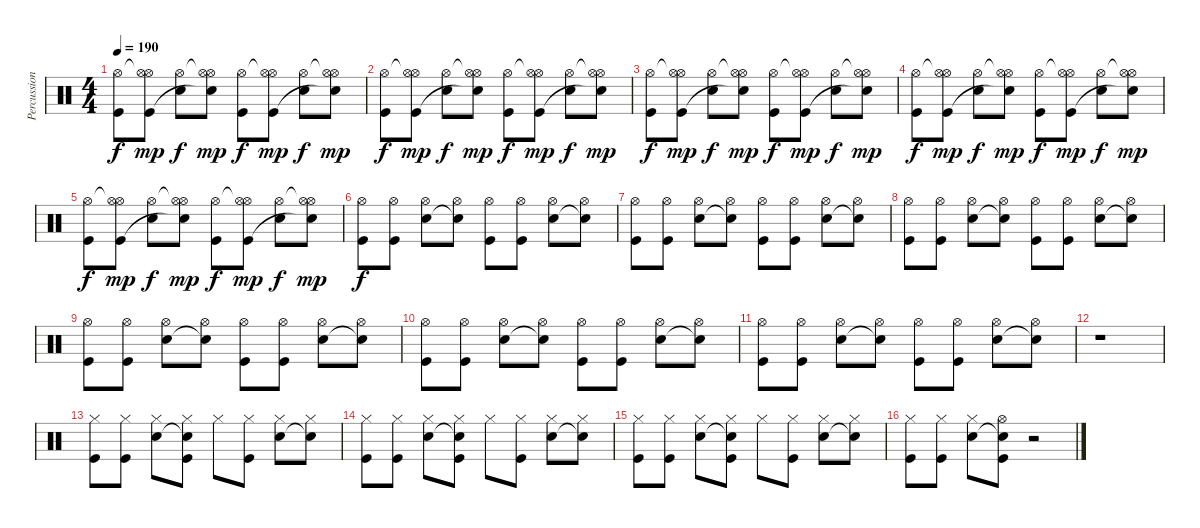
\track ("Percussions" "Percussion") {instrument percussion}
\staff {score}
\articulation defaults
\ts (4 4)
\tempo 190
\clef neutral
\ks c
("Hi-Hat (open)" "Kick (hit)").8{dy f} ("Hi-Hat (open)"{t} "Hi-Hat (open)" "Kick (hit)").8{dy mp} ("Hi-Hat (open)" "Electric Snare (hit)").8{dy f} ("Hi-Hat (open)"{t} "Hi-Hat (open)" "Snare (hit)"{t}).8{dy mp} ("Hi-Hat (open)" "Kick (hit)").8{dy f} ("Hi-Hat (open)"{t} "Hi-Hat (open)" "Kick (hit)").8{dy mp} ("Hi-Hat (open)" "Electric Snare (hit)").8{dy f} ("Hi-Hat (open)"{t} "Hi-Hat (open)" "Snare (hit)"{t}).8{dy mp} |
("Hi-Hat (open)" "Kick (hit)").8{dy f} ("Hi-Hat (open)"{t} "Hi-Hat (open)" "Kick (hit)").8{dy mp} ("Hi-Hat (open)" "Electric Snare (hit)").8{dy f} ("Hi-Hat (open)"{t} "Hi-Hat (open)" "Snare (hit)"{t}).8{dy mp} ("Hi-Hat (open)" "Kick (hit)").8{dy f} ("Hi-Hat (open)"{t} "Hi-Hat (open)" "Kick (hit)").8{dy mp} ("Hi-Hat (open)" "Electric Snare (hit)").8{dy f} ("Hi-Hat (open)"{t} "Hi-Hat (open)" "Snare (hit)"{t}).8{dy mp} |
("Hi-Hat (open)" "Kick (hit)").8{dy f} ("Hi-Hat (open)"{t} "Hi-Hat (open)" "Kick (hit)").8{dy mp} ("Hi-Hat (open)" "Electric Snare (hit)").8{dy f} ("Hi-Hat (open)"{t} "Hi-Hat (open)" "Snare (hit)"{t}).8{dy mp} ("Hi-Hat (open)" "Kick (hit)").8{dy f} ("Hi-Hat (open)"{t} "Hi-Hat (open)" "Kick (hit)").8{dy mp} ("Hi-Hat (open)" "Electric Snare (hit)").8{dy f} ("Hi-Hat (open)"{t} "Hi-Hat (open)" "Snare (hit)"{t}).8{dy mp} |
("Hi-Hat (open)" "Kick (hit)").8{dy f} ("Hi-Hat (open)"{t} "Hi-Hat (open)" "Kick (hit)").8{dy mp} ("Hi-Hat (open)" "Electric Snare (hit)").8{dy f} ("Hi-Hat (open)"{t} "Hi-Hat (open)" "Snare (hit)"{t}).8{dy mp} ("Hi-Hat (open)" "Kick (hit)").8{dy f} ("Hi-Hat (open)"{t} "Hi-Hat (open)" "Kick (hit)").8{dy mp} ("Hi-Hat (open)" "Electric Snare (hit)").8{dy f} ("Hi-Hat (open)"{t} "Hi-Hat (open)" "Snare (hit)"{t}).8{dy mp} |
("Hi-Hat (open)" "Kick (hit)").8{dy f} ("Hi-Hat (open)"{t} "Hi-Hat (open)" "Kick (hit)").8{dy mp} ("Hi-Hat (open)" "Electric Snare (hit)").8{dy f} ("Hi-Hat (open)"{t} "Hi-Hat (open)" "Snare (hit)"{t}).8{dy mp} ("Hi-Hat (open)" "Kick (hit)").8{dy f} ("Hi-Hat (open)"{t} "Hi-Hat (open)" "Kick (hit)").8{dy mp} ("Hi-Hat (open)" "Electric Snare (hit)").8{dy f} ("Hi-Hat (open)"{t} "Hi-Hat (open)" "Snare (hit)"{t}).8{dy mp} |
("Hi-Hat (open)" "Kick (hit)").8{dy f} ("Hi-Hat (open)" "Kick (hit)").8 ("Hi-Hat (open)" "Electric Snare (hit)").8 ("Hi-Hat (open)" "Snare (hit)"{t}).8 ("Hi-Hat (open)" "Kick (hit)").8 ("Hi-Hat (open)" "Kick (hit)").8 ("Hi-Hat (open)" "Electric Snare (hit)").8 ("Hi-Hat (open)" "Snare (hit)"{t}).8 |
("Hi-Hat (open)" "Kick (hit)").8 ("Hi-Hat (open)" "Kick (hit)").8 ("Hi-Hat (open)" "Electric Snare (hit)").8 ("Hi-Hat (open)" "Snare (hit)"{t}).8 ("Hi-Hat (open)" "Kick (hit)").8 ("Hi-Hat (open)" "Kick (hit)").8 ("Hi-Hat (open)" "Electric Snare (hit)").8 ("Hi-Hat (open)" "Snare (hit)"{t}).8 |
("Hi-Hat (open)" "Kick (hit)").8 ("Hi-Hat (open)" "Kick (hit)").8 ("Hi-Hat (open)" "Electric Snare (hit)").8 ("Hi-Hat (open)" "Snare (hit)"{t}).8 ("Hi-Hat (open)" "Kick (hit)").8 ("Hi-Hat (open)" "Kick (hit)").8 ("Hi-Hat (open)" "Electric Snare (hit)").8 ("Hi-Hat (open)" "Snare (hit)"{t}).8 |
("Hi-Hat (open)" "Kick (hit)").8 ("Hi-Hat (open)" "Kick (hit)").8 ("Hi-Hat (open)" "Electric Snare (hit)").8 ("Hi-Hat (open)" "Snare (hit)"{t}).8 ("Hi-Hat (open)" "Kick (hit)").8 ("Hi-Hat (open)" "Kick (hit)").8 ("Hi-Hat (open)" "Electric Snare (hit)").8 ("Hi-Hat (open)" "Snare (hit)"{t}).8 |
("Hi-Hat (open)" "Kick (hit)").8 ("Hi-Hat (open)" "Kick (hit)").8 ("Hi-Hat (open)" "Electric Snare (hit)").8 ("Hi-Hat (open)" "Snare (hit)"{t}).8 ("Hi-Hat (open)" "Kick (hit)").8 ("Hi-Hat (open)" "Kick (hit)").8 ("Hi-Hat (open)" "Electric Snare (hit)").8 ("Hi-Hat (open)" "Snare (hit)"{t}).8 |
("Hi-Hat (open)" "Kick (hit)").8 ("Hi-Hat (open)" "Kick (hit)").8 ("Hi-Hat (open)" "Electric Snare (hit)").8 ("Hi-Hat (open)" "Snare (hit)"{t}).8 ("Hi-Hat (open)" "Kick (hit)").8 ("Hi-Hat (open)" "Kick (hit)").8 ("Hi-Hat (open)" "Electric Snare (hit)").8 ("Hi-Hat (open)" "Snare (hit)"{t}).8 |
r.1 |
("Hi-Hat (closed)" "Kick (hit)").8 ("Hi-Hat (closed)" "Kick (hit)").8 ("Hi-Hat (closed)" "Electric Snare (hit)").8 ("Hi-Hat (closed)" "Snare (hit)"{t} "Kick (hit)").8 "Hi-Hat (closed)".8 ("Hi-Hat (closed)" "Kick (hit)").8 ("Hi-Hat (closed)" "Electric Snare (hit)").8 ("Hi-Hat (closed)" "Snare (hit)"{t}).8 |
("Hi-Hat (closed)" "Kick (hit)").8 ("Hi-Hat (closed)" "Kick (hit)").8 ("Hi-Hat (closed)" "Electric Snare (hit)").8 ("Hi-Hat (closed)" "Snare (hit)"{t} "Kick (hit)").8 "Hi-Hat (closed)".8 ("Hi-Hat (closed)" "Kick (hit)").8 ("Hi-Hat (closed)" "Electric Snare (hit)").8 ("Hi-Hat (closed)" "Snare (hit)"{t}).8 |
("Hi-Hat (closed)" "Kick (hit)").8 ("Hi-Hat (closed)" "Kick (hit)").8 ("Hi-Hat (closed)" "Electric Snare (hit)").8 ("Hi-Hat (closed)" "Snare (hit)"{t} "Kick (hit)").8 "Hi-Hat (closed)".8 ("Hi-Hat (closed)" "Kick (hit)").8 ("Hi-Hat (closed)" "Electric Snare (hit)").8 ("Hi-Hat (closed)" "Snare (hit)"{t}).8 |
("Hi-Hat (closed)" "Kick (hit)").8 ("Hi-Hat (closed)" "Kick (hit)").8 ("Hi-Hat (closed)" "Electric Snare (hit)").8 ("Hi-Hat (open)" "Snare (hit)"{t} "Kick (hit)").8 r.2
